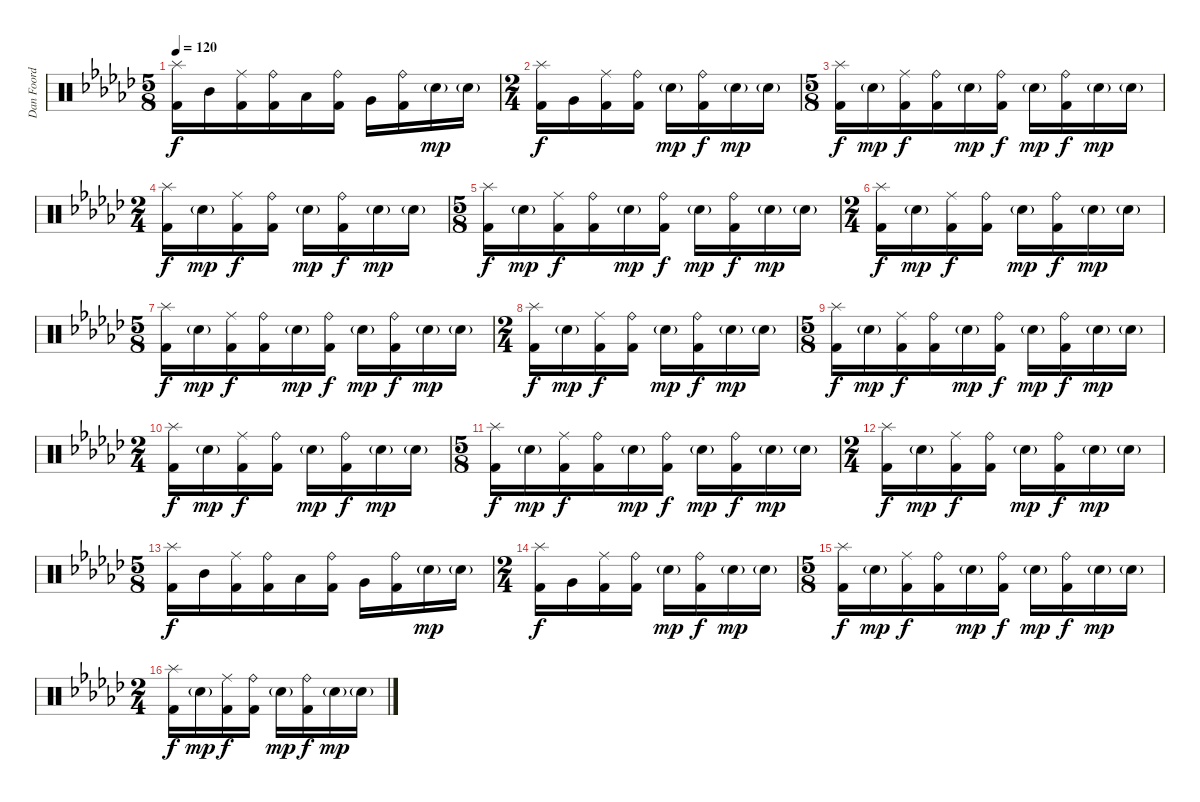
\track ("Dan Foord 2" "Dan Foord ") {instrument percussion}
\staff {score}
\articulation defaults
\ts (5 8)
\tempo 120
\clef neutral
\ks gb
("Splash (hit)" "Kick (hit) 2").16{dy f} "Mid Tom (hit)".16 ("Ride (middle)" "Kick (hit) 2").16 ("Ride (bell)" "Kick (hit) 2").16 "Low Tom (hit)".16 ("Ride (bell)" "Kick (hit) 2").16 "Very Low Tom (hit)".16 ("Ride (bell)" "Kick (hit) 2").16 "Snare (hit) 2"{g}.16{dy mp} "Snare (hit) 2"{g}.16 |
\ts (2 4)
("Splash (hit)" "Kick (hit) 2").16{dy f} "Very Low Tom (hit)".16 ("Ride (middle)" "Kick (hit) 2").16 ("Ride (bell)" "Kick (hit) 2").16 "Snare (hit) 2"{g}.16{dy mp} ("Ride (bell)" "Kick (hit) 2").16{dy f} "Snare (hit) 2"{g}.16{dy mp} "Snare (hit) 2"{g}.16 |
\ts (5 8)
("Splash (hit)" "Kick (hit) 2").16{dy f} "Snare (hit) 2"{g}.16{dy mp} ("Ride (middle)" "Kick (hit) 2").16{dy f} ("Ride (bell)" "Kick (hit) 2").16 "Snare (hit) 2"{g}.16{dy mp} ("Ride (bell)" "Kick (hit) 2").16{dy f} "Snare (hit) 2"{g}.16{dy mp} ("Ride (bell)" "Kick (hit) 2").16{dy f} "Snare (hit) 2"{g}.16{dy mp} "Snare (hit) 2"{g}.16 |
\ts (2 4)
("Splash (hit)" "Kick (hit) 2").16{dy f} "Snare (hit) 2"{g}.16{dy mp} ("Ride (middle)" "Kick (hit) 2").16{dy f} ("Ride (bell)" "Kick (hit) 2").16 "Snare (hit) 2"{g}.16{dy mp} ("Ride (bell)" "Kick (hit) 2").16{dy f} "Snare (hit) 2"{g}.16{dy mp} "Snare (hit) 2"{g}.16 |
\ts (5 8)
("Splash (hit)" "Kick (hit) 2").16{dy f} "Snare (hit) 2"{g}.16{dy mp} ("Ride (middle)" "Kick (hit) 2").16{dy f} ("Ride (bell)" "Kick (hit) 2").16 "Snare (hit) 2"{g}.16{dy mp} ("Ride (bell)" "Kick (hit) 2").16{dy f} "Snare (hit) 2"{g}.16{dy mp} ("Ride (bell)" "Kick (hit) 2").16{dy f} "Snare (hit) 2"{g}.16{dy mp} "Snare (hit) 2"{g}.16 |
\ts (2 4)
("Splash (hit)" "Kick (hit) 2").16{dy f} "Snare (hit) 2"{g}.16{dy mp} ("Ride (middle)" "Kick (hit) 2").16{dy f} ("Ride (bell)" "Kick (hit) 2").16 "Snare (hit) 2"{g}.16{dy mp} ("Ride (bell)" "Kick (hit) 2").16{dy f} "Snare (hit) 2"{g}.16{dy mp} "Snare (hit) 2"{g}.16 |
\ts (5 8)
("Splash (hit)" "Kick (hit) 2").16{dy f} "Snare (hit) 2"{g}.16{dy mp} ("Ride (middle)" "Kick (hit) 2").16{dy f} ("Ride (bell)" "Kick (hit) 2").16 "Snare (hit) 2"{g}.16{dy mp} ("Ride (bell)" "Kick (hit) 2").16{dy f} "Snare (hit) 2"{g}.16{dy mp} ("Ride (bell)" "Kick (hit) 2").16{dy f} "Snare (hit) 2"{g}.16{dy mp} "Snare (hit) 2"{g}.16 |
\ts (2 4)
("Splash (hit)" "Kick (hit) 2").16{dy f} "Snare (hit) 2"{g}.16{dy mp} ("Ride (middle)" "Kick (hit) 2").16{dy f} ("Ride (bell)" "Kick (hit) 2").16 "Snare (hit) 2"{g}.16{dy mp} ("Ride (bell)" "Kick (hit) 2").16{dy f} "Snare (hit) 2"{g}.16{dy mp} "Snare (hit) 2"{g}.16 |
\ts (5 8)
("Splash (hit)" "Kick (hit) 2").16{dy f} "Snare (hit) 2"{g}.16{dy mp} ("Ride (middle)" "Kick (hit) 2").16{dy f} ("Ride (bell)" "Kick (hit) 2").16 "Snare (hit) 2"{g}.16{dy mp} ("Ride (bell)" "Kick (hit) 2").16{dy f} "Snare (hit) 2"{g}.16{dy mp} ("Ride (bell)" "Kick (hit) 2").16{dy f} "Snare (hit) 2"{g}.16{dy mp} "Snare (hit) 2"{g}.16 |
\ts (2 4)
("Splash (hit)" "Kick (hit) 2").16{dy f} "Snare (hit) 2"{g}.16{dy mp} ("Ride (middle)" "Kick (hit) 2").16{dy f} ("Ride (bell)" "Kick (hit) 2").16 "Snare (hit) 2"{g}.16{dy mp} ("Ride (bell)" "Kick (hit) 2").16{dy f} "Snare (hit) 2"{g}.16{dy mp} "Snare (hit) 2"{g}.16 |
\ts (5 8)
("Splash (hit)" "Kick (hit) 2").16{dy f} "Snare (hit) 2"{g}.16{dy mp} ("Ride (middle)" "Kick (hit) 2").16{dy f} ("Ride (bell)" "Kick (hit) 2").16 "Snare (hit) 2"{g}.16{dy mp} ("Ride (bell)" "Kick (hit) 2").16{dy f} "Snare (hit) 2"{g}.16{dy mp} ("Ride (bell)" "Kick (hit) 2").16{dy f} "Snare (hit) 2"{g}.16{dy mp} "Snare (hit) 2"{g}.16 |
\ts (2 4)
("Splash (hit)" "Kick (hit) 2").16{dy f} "Snare (hit) 2"{g}.16{dy mp} ("Ride (middle)" "Kick (hit) 2").16{dy f} ("Ride (bell)" "Kick (hit) 2").16 "Snare (hit) 2"{g}.16{dy mp} ("Ride (bell)" "Kick (hit) 2").16{dy f} "Snare (hit) 2"{g}.16{dy mp} "Snare (hit) 2"{g}.16 |
\ts (5 8)
("Splash (hit)" "Kick (hit) 2").16{dy f} "Mid Tom (hit)".16 ("Ride (middle)" "Kick (hit) 2").16 ("Ride (bell)" "Kick (hit) 2").16 "Low Tom (hit)".16 ("Ride (bell)" "Kick (hit) 2").16 "Very Low Tom (hit)".16 ("Ride (bell)" "Kick (hit) 2").16 "Snare (hit) 2"{g}.16{dy mp} "Snare (hit) 2"{g}.16 |
\ts (2 4)
("Splash (hit)" "Kick (hit) 2").16{dy f} "Very Low Tom (hit)".16 ("Ride (middle)" "Kick (hit) 2").16 ("Ride (bell)" "Kick (hit) 2").16 "Snare (hit) 2"{g}.16{dy mp} ("Ride (bell)" "Kick (hit) 2").16{dy f} "Snare (hit) 2"{g}.16{dy mp} "Snare (hit) 2"{g}.16 |
\ts (5 8)
("Splash (hit)" "Kick (hit) 2").16{dy f} "Snare (hit) 2"{g}.16{dy mp} ("Ride (middle)" "Kick (hit) 2").16{dy f} ("Ride (bell)" "Kick (hit) 2").16 "Snare (hit) 2"{g}.16{dy mp} ("Ride (bell)" "Kick (hit) 2").16{dy f} "Snare (hit) 2"{g}.16{dy mp} ("Ride (bell)" "Kick (hit) 2").16{dy f} "Snare (hit) 2"{g}.16{dy mp} "Snare (hit) 2"{g}.16 |
\ts (2 4)
("Splash (hit)" "Kick (hit) 2").16{dy f} "Snare (hit) 2"{g}.16{dy mp} ("Ride (middle)" "Kick (hit) 2").16{dy f} ("Ride (bell)" "Kick (hit) 2").16 "Snare (hit) 2"{g}.16{dy mp} ("Ride (bell)" "Kick (hit) 2").16{dy f} "Snare (hit) 2"{g}.16{dy mp} "Snare (hit) 2"{g}.16
